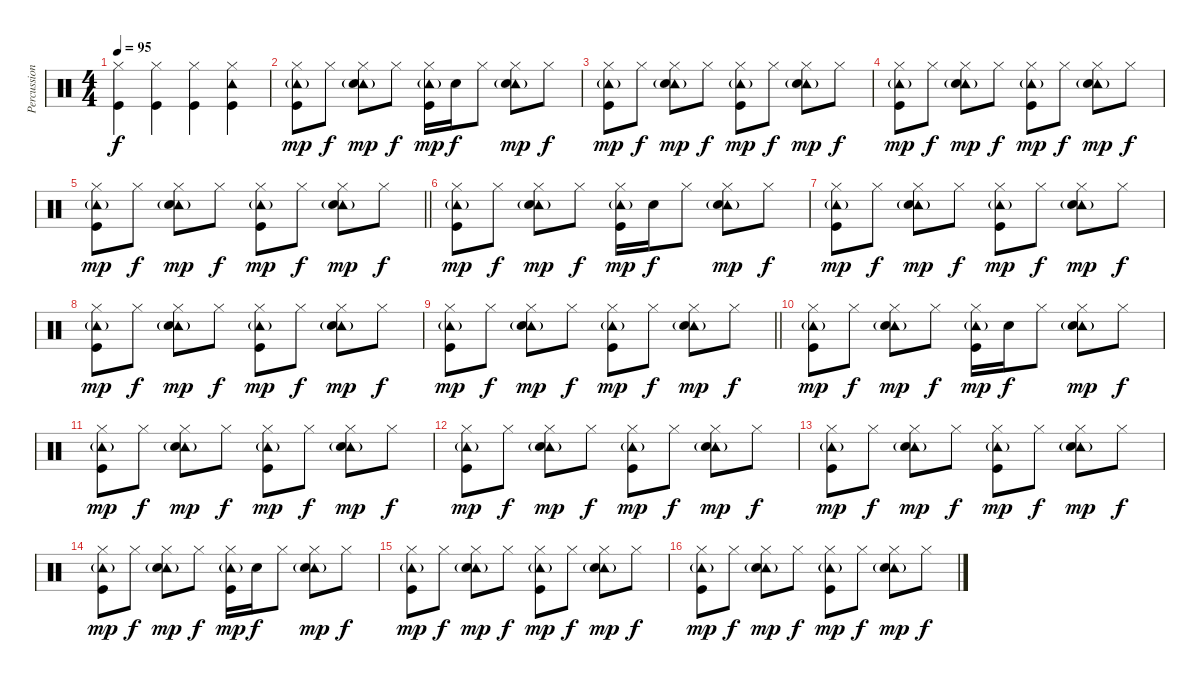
\track ("Percussion" "Percussion") {instrument percussion}
\staff {score}
\articulation defaults
\ts (4 4)
\tempo 95
\clef neutral
\ks c
("Hi-Hat (closed)" "Kick (hit)").4{dy f} ("Hi-Hat (closed)" "Kick (hit)").4 ("Hi-Hat (closed)" "Kick (hit)").4 ("Hi-Hat (closed)" "Tambourine (hit)" "Kick (hit)").4 |
("Hi-Hat (closed)" "Tambourine (hit)"{g} "Kick (hit)").8{dy mp} "Hi-Hat (closed)".8{dy f} ("Hi-Hat (closed)" "Tambourine (hit)"{g} "Electric Snare (hit)").8{dy mp} "Hi-Hat (closed)".8{dy f} ("Hi-Hat (closed)" "Tambourine (hit)"{g} "Kick (hit)").16{dy mp} "Electric Snare (hit)".16{dy f} "Hi-Hat (closed)".8 ("Hi-Hat (closed)" "Tambourine (hit)"{g} "Electric Snare (hit)").8{dy mp} "Hi-Hat (closed)".8{dy f} |
("Hi-Hat (closed)" "Tambourine (hit)"{g} "Kick (hit)").8{dy mp} "Hi-Hat (closed)".8{dy f} ("Hi-Hat (closed)" "Tambourine (hit)"{g} "Electric Snare (hit)").8{dy mp} "Hi-Hat (closed)".8{dy f} ("Hi-Hat (closed)" "Tambourine (hit)"{g} "Kick (hit)").8{dy mp} "Hi-Hat (closed)".8{dy f} ("Hi-Hat (closed)" "Tambourine (hit)"{g} "Electric Snare (hit)").8{dy mp} "Hi-Hat (closed)".8{dy f} |
("Hi-Hat (closed)" "Tambourine (hit)"{g} "Kick (hit)").8{dy mp} "Hi-Hat (closed)".8{dy f} ("Hi-Hat (closed)" "Tambourine (hit)"{g} "Electric Snare (hit)").8{dy mp} "Hi-Hat (closed)".8{dy f} ("Hi-Hat (closed)" "Tambourine (hit)"{g} "Kick (hit)").8{dy mp} "Hi-Hat (closed)".8{dy f} ("Hi-Hat (closed)" "Tambourine (hit)"{g} "Electric Snare (hit)").8{dy mp} "Hi-Hat (closed)".8{dy f} |
\barLineRight lightlight
("Hi-Hat (closed)" "Tambourine (hit)"{g} "Kick (hit)").8{dy mp} "Hi-Hat (closed)".8{dy f} ("Hi-Hat (closed)" "Tambourine (hit)"{g} "Electric Snare (hit)").8{dy mp} "Hi-Hat (closed)".8{dy f} ("Hi-Hat (closed)" "Tambourine (hit)"{g} "Kick (hit)").8{dy mp} "Hi-Hat (closed)".8{dy f} ("Hi-Hat (closed)" "Tambourine (hit)"{g} "Electric Snare (hit)").8{dy mp} "Hi-Hat (closed)".8{dy f} |
("Hi-Hat (closed)" "Tambourine (hit)"{g} "Kick (hit)").8{dy mp} "Hi-Hat (closed)".8{dy f} ("Hi-Hat (closed)" "Tambourine (hit)"{g} "Electric Snare (hit)").8{dy mp} "Hi-Hat (closed)".8{dy f} ("Hi-Hat (closed)" "Tambourine (hit)"{g} "Kick (hit)").16{dy mp} "Electric Snare (hit)".16{dy f} "Hi-Hat (closed)".8 ("Hi-Hat (closed)" "Tambourine (hit)"{g} "Electric Snare (hit)").8{dy mp} "Hi-Hat (closed)".8{dy f} |
("Hi-Hat (closed)" "Tambourine (hit)"{g} "Kick (hit)").8{dy mp} "Hi-Hat (closed)".8{dy f} ("Hi-Hat (closed)" "Tambourine (hit)"{g} "Electric Snare (hit)").8{dy mp} "Hi-Hat (closed)".8{dy f} ("Hi-Hat (closed)" "Tambourine (hit)"{g} "Kick (hit)").8{dy mp} "Hi-Hat (closed)".8{dy f} ("Hi-Hat (closed)" "Tambourine (hit)"{g} "Electric Snare (hit)").8{dy mp} "Hi-Hat (closed)".8{dy f} |
("Hi-Hat (closed)" "Tambourine (hit)"{g} "Kick (hit)").8{dy mp} "Hi-Hat (closed)".8{dy f} ("Hi-Hat (closed)" "Tambourine (hit)"{g} "Electric Snare (hit)").8{dy mp} "Hi-Hat (closed)".8{dy f} ("Hi-Hat (closed)" "Tambourine (hit)"{g} "Kick (hit)").8{dy mp} "Hi-Hat (closed)".8{dy f} ("Hi-Hat (closed)" "Tambourine (hit)"{g} "Electric Snare (hit)").8{dy mp} "Hi-Hat (closed)".8{dy f} |
\barLineRight lightlight
("Hi-Hat (closed)" "Tambourine (hit)"{g} "Kick (hit)").8{dy mp} "Hi-Hat (closed)".8{dy f} ("Hi-Hat (closed)" "Tambourine (hit)"{g} "Electric Snare (hit)").8{dy mp} "Hi-Hat (closed)".8{dy f} ("Hi-Hat (closed)" "Tambourine (hit)"{g} "Kick (hit)").8{dy mp} "Hi-Hat (closed)".8{dy f} ("Hi-Hat (closed)" "Tambourine (hit)"{g} "Electric Snare (hit)").8{dy mp} "Hi-Hat (closed)".8{dy f} |
("Hi-Hat (closed)" "Tambourine (hit)"{g} "Kick (hit)").8{dy mp} "Hi-Hat (closed)".8{dy f} ("Hi-Hat (closed)" "Tambourine (hit)"{g} "Electric Snare (hit)").8{dy mp} "Hi-Hat (closed)".8{dy f} ("Hi-Hat (closed)" "Tambourine (hit)"{g} "Kick (hit)").16{dy mp} "Electric Snare (hit)".16{dy f} "Hi-Hat (closed)".8 ("Hi-Hat (closed)" "Tambourine (hit)"{g} "Electric Snare (hit)").8{dy mp} "Hi-Hat (closed)".8{dy f} |
("Hi-Hat (closed)" "Tambourine (hit)"{g} "Kick (hit)").8{dy mp} "Hi-Hat (closed)".8{dy f} ("Hi-Hat (closed)" "Tambourine (hit)"{g} "Electric Snare (hit)").8{dy mp} "Hi-Hat (closed)".8{dy f} ("Hi-Hat (closed)" "Tambourine (hit)"{g} "Kick (hit)").8{dy mp} "Hi-Hat (closed)".8{dy f} ("Hi-Hat (closed)" "Tambourine (hit)"{g} "Electric Snare (hit)").8{dy mp} "Hi-Hat (closed)".8{dy f} |
("Hi-Hat (closed)" "Tambourine (hit)"{g} "Kick (hit)").8{dy mp} "Hi-Hat (closed)".8{dy f} ("Hi-Hat (closed)" "Tambourine (hit)"{g} "Electric Snare (hit)").8{dy mp} "Hi-Hat (closed)".8{dy f} ("Hi-Hat (closed)" "Tambourine (hit)"{g} "Kick (hit)").8{dy mp} "Hi-Hat (closed)".8{dy f} ("Hi-Hat (closed)" "Tambourine (hit)"{g} "Electric Snare (hit)").8{dy mp} "Hi-Hat (closed)".8{dy f} |
("Hi-Hat (closed)" "Tambourine (hit)"{g} "Kick (hit)").8{dy mp} "Hi-Hat (closed)".8{dy f} ("Hi-Hat (closed)" "Tambourine (hit)"{g} "Electric Snare (hit)").8{dy mp} "Hi-Hat (closed)".8{dy f} ("Hi-Hat (closed)" "Tambourine (hit)"{g} "Kick (hit)").8{dy mp} "Hi-Hat (closed)".8{dy f} ("Hi-Hat (closed)" "Tambourine (hit)"{g} "Electric Snare (hit)").8{dy mp} "Hi-Hat (closed)".8{dy f} |
("Hi-Hat (closed)" "Tambourine (hit)"{g} "Kick (hit)").8{dy mp} "Hi-Hat (closed)".8{dy f} ("Hi-Hat (closed)" "Tambourine (hit)"{g} "Electric Snare (hit)").8{dy mp} "Hi-Hat (closed)".8{dy f} ("Hi-Hat (closed)" "Tambourine (hit)"{g} "Kick (hit)").16{dy mp} "Electric Snare (hit)".16{dy f} "Hi-Hat (closed)".8 ("Hi-Hat (closed)" "Tambourine (hit)"{g} "Electric Snare (hit)").8{dy mp} "Hi-Hat (closed)".8{dy f} |
("Hi-Hat (closed)" "Tambourine (hit)"{g} "Kick (hit)").8{dy mp} "Hi-Hat (closed)".8{dy f} ("Hi-Hat (closed)" "Tambourine (hit)"{g} "Electric Snare (hit)").8{dy mp} "Hi-Hat (closed)".8{dy f} ("Hi-Hat (closed)" "Tambourine (hit)"{g} "Kick (hit)").8{dy mp} "Hi-Hat (closed)".8{dy f} ("Hi-Hat (closed)" "Tambourine (hit)"{g} "Electric Snare (hit)").8{dy mp} "Hi-Hat (closed)".8{dy f} |
("Hi-Hat (closed)" "Tambourine (hit)"{g} "Kick (hit)").8{dy mp} "Hi-Hat (closed)".8{dy f} ("Hi-Hat (closed)" "Tambourine (hit)"{g} "Electric Snare (hit)").8{dy mp} "Hi-Hat (closed)".8{dy f} ("Hi-Hat (closed)" "Tambourine (hit)"{g} "Kick (hit)").8{dy mp} "Hi-Hat (closed)".8{dy f} ("Hi-Hat (closed)" "Tambourine (hit)"{g} "Electric Snare (hit)").8{dy mp} "Hi-Hat (closed)".8{dy f}
